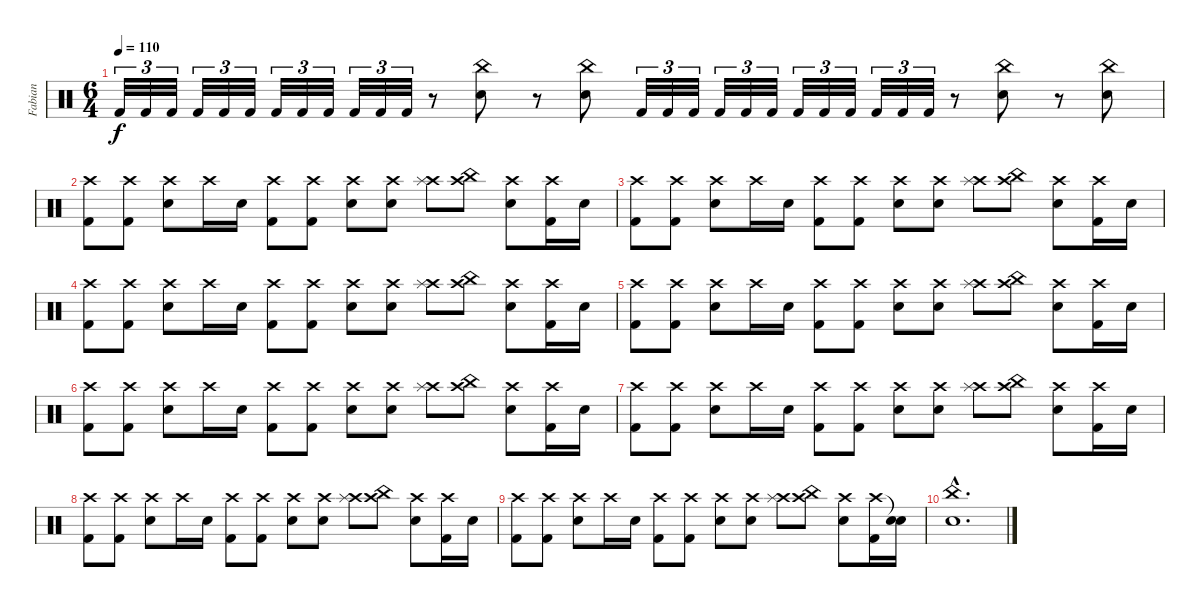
\track ("Fabian" "Fabian") {instrument percussion}
\staff {score}
\articulation defaults
\ts (6 4)
\tempo 110
\clef neutral
\ks c "Kick (hit) 2".32{tu (3 2) dy f} "Kick (hit) 2".32{tu (3 2)} "Kick (hit) 2".32{tu (3 2)} "Kick (hit) 2".32{tu (3 2)} "Kick (hit) 2".32{tu (3 2)} "Kick (hit) 2".32{tu (3 2)} "Kick (hit) 2".32{tu (3 2)} "Kick (hit) 2".32{tu (3 2)} "Kick (hit) 2".32{tu (3 2)} "Kick (hit) 2".32{tu (3 2)} "Kick (hit) 2".32{tu (3 2)} "Kick (hit) 2".32{tu (3 2)}
r.8 ("China (hit)" "Snare (hit) 2").8 r.8 ("China (hit)" "Snare (hit) 2").8 "Kick (hit) 2".32{tu (3 2)} "Kick (hit) 2".32{tu (3 2)} "Kick (hit) 2".32{tu (3 2)} "Kick (hit) 2".32{tu (3 2)} "Kick (hit) 2".32{tu (3 2)} "Kick (hit) 2".32{tu (3 2)} "Kick (hit) 2".32{tu (3 2)} "Kick (hit) 2".32{tu (3 2)} "Kick (hit) 2".32{tu (3 2)} "Kick (hit) 2".32{tu (3 2)} "Kick (hit) 2".32{tu (3 2)} "Kick (hit) 2".32{tu (3 2)} r.8 ("China (hit)" "Snare (hit) 2").8 r.8 ("China (hit)" "Snare (hit) 2").8 |
("Crash high (hit)" "Kick (hit) 2").8 ("Crash high (hit)" "Kick (hit) 2").8 ("Crash high (hit)" "Snare (hit) 2").8 "Crash high (hit)".16 "Snare (hit) 2".16 ("Crash high (hit)" "Kick (hit) 2").8 ("Crash high (hit)" "Kick (hit) 2").8 ("Crash high (hit)" "Snare (hit) 2").8 ("Crash high (hit)" "Snare (hit) 2").8 ("Crash high (hit)" "Splash (hit)").8 ("Crash high (hit)" "China (hit)").8 ("Crash high (hit)" "Snare (hit) 2").8 ("Crash high (hit)" "Kick (hit) 2").16 "Snare (hit) 2".16 |
("Crash high (hit)" "Kick (hit) 2").8 ("Crash high (hit)" "Kick (hit) 2").8 ("Crash high (hit)" "Snare (hit) 2").8 "Crash high (hit)".16 "Snare (hit) 2".16 ("Crash high (hit)" "Kick (hit) 2").8 ("Crash high (hit)" "Kick (hit) 2").8 ("Crash high (hit)" "Snare (hit) 2").8 ("Crash high (hit)" "Snare (hit) 2").8 ("Crash high (hit)" "Splash (hit)").8 ("Crash high (hit)" "China (hit)").8 ("Crash high (hit)" "Snare (hit) 2").8 ("Crash high (hit)" "Kick (hit) 2").16 "Snare (hit) 2".16 |
("Crash high (hit)" "Kick (hit) 2").8 ("Crash high (hit)" "Kick (hit) 2").8 ("Crash high (hit)" "Snare (hit) 2").8 "Crash high (hit)".16 "Snare (hit) 2".16 ("Crash high (hit)" "Kick (hit) 2").8 ("Crash high (hit)" "Kick (hit) 2").8 ("Crash high (hit)" "Snare (hit) 2").8 ("Crash high (hit)" "Snare (hit) 2").8 ("Crash high (hit)" "Splash (hit)").8 ("Crash high (hit)" "China (hit)").8 ("Crash high (hit)" "Snare (hit) 2").8 ("Crash high (hit)" "Kick (hit) 2").16 "Snare (hit) 2".16 |
("Crash high (hit)" "Kick (hit) 2").8 ("Crash high (hit)" "Kick (hit) 2").8 ("Crash high (hit)" "Snare (hit) 2").8 "Crash high (hit)".16 "Snare (hit) 2".16 ("Crash high (hit)" "Kick (hit) 2").8 ("Crash high (hit)" "Kick (hit) 2").8 ("Crash high (hit)" "Snare (hit) 2").8 ("Crash high (hit)" "Snare (hit) 2").8 ("Crash high (hit)" "Splash (hit)").8 ("Crash high (hit)" "China (hit)").8 ("Crash high (hit)" "Snare (hit) 2").8 ("Crash high (hit)" "Kick (hit) 2").16 "Snare (hit) 2".16 |
("Crash high (hit)" "Kick (hit) 2").8 ("Crash high (hit)" "Kick (hit) 2").8 ("Crash high (hit)" "Snare (hit) 2").8 "Crash high (hit)".16 "Snare (hit) 2".16 ("Crash high (hit)" "Kick (hit) 2").8 ("Crash high (hit)" "Kick (hit) 2").8 ("Crash high (hit)" "Snare (hit) 2").8 ("Crash high (hit)" "Snare (hit) 2").8 ("Crash high (hit)" "Splash (hit)").8 ("Crash high (hit)" "China (hit)").8 ("Crash high (hit)" "Snare (hit) 2").8 ("Crash high (hit)" "Kick (hit) 2").16 "Snare (hit) 2".16 |
("Crash high (hit)" "Kick (hit) 2").8 ("Crash high (hit)" "Kick (hit) 2").8 ("Crash high (hit)" "Snare (hit) 2").8 "Crash high (hit)".16 "Snare (hit) 2".16 ("Crash high (hit)" "Kick (hit) 2").8 ("Crash high (hit)" "Kick (hit) 2").8 ("Crash high (hit)" "Snare (hit) 2").8 ("Crash high (hit)" "Snare (hit) 2").8 ("Crash high (hit)" "Splash (hit)").8 ("Crash high (hit)" "China (hit)").8 ("Crash high (hit)" "Snare (hit) 2").8 ("Crash high (hit)" "Kick (hit) 2").16 "Snare (hit) 2".16 |
("Crash high (hit)" "Kick (hit) 2").8 ("Crash high (hit)" "Kick (hit) 2").8 ("Crash high (hit)" "Snare (hit) 2").8 "Crash high (hit)".16 "Snare (hit) 2".16 ("Crash high (hit)" "Kick (hit) 2").8 ("Crash high (hit)" "Kick (hit) 2").8 ("Crash high (hit)" "Snare (hit) 2").8 ("Crash high (hit)" "Snare (hit) 2").8 ("Crash high (hit)" "Splash (hit)").8 ("Crash high (hit)" "China (hit)").8 ("Crash high (hit)" "Snare (hit) 2").8 ("Crash high (hit)" "Kick (hit) 2").16 "Snare (hit) 2".16 |
("Crash high (hit)" "Kick (hit) 2").8 ("Crash high (hit)" "Kick (hit) 2").8 ("Crash high (hit)" "Snare (hit) 2").8 "Crash high (hit)".16 "Snare (hit) 2".16 ("Crash high (hit)" "Kick (hit) 2").8 ("Crash high (hit)" "Kick (hit) 2").8 ("Crash high (hit)" "Snare (hit) 2").8 ("Crash high (hit)" "Snare (hit) 2").8 ("Crash high (hit)" "Splash (hit)").8 ("Crash high (hit)" "China (hit)").8 ("Crash high (hit)" "Snare (hit) 2").8 ("Crash high (hit)" "Kick (hit) 2").16 ("Snare (hit)"{t} "Snare (hit) 2").16 |
("China (hit)"{hac} "Snare (hit) 2"{hac}).1{d}
